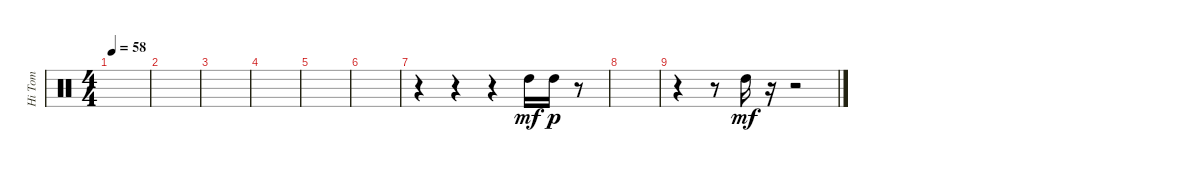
\track ("Hi Tom" "Hi Tom") {instrument percussion}
\staff {score}
\articulation defaults
\ts (4 4)
\tempo 58
\clef neutral
\ks c
|
|
|
|
|
|
r.4 r.4 r.4 "High Tom (hit)".16{dy mf} "High Tom (hit)".16{dy p} r.8 |
|
r.4 r.8 "High Tom (hit)".16{dy mf} r.16 r.2
